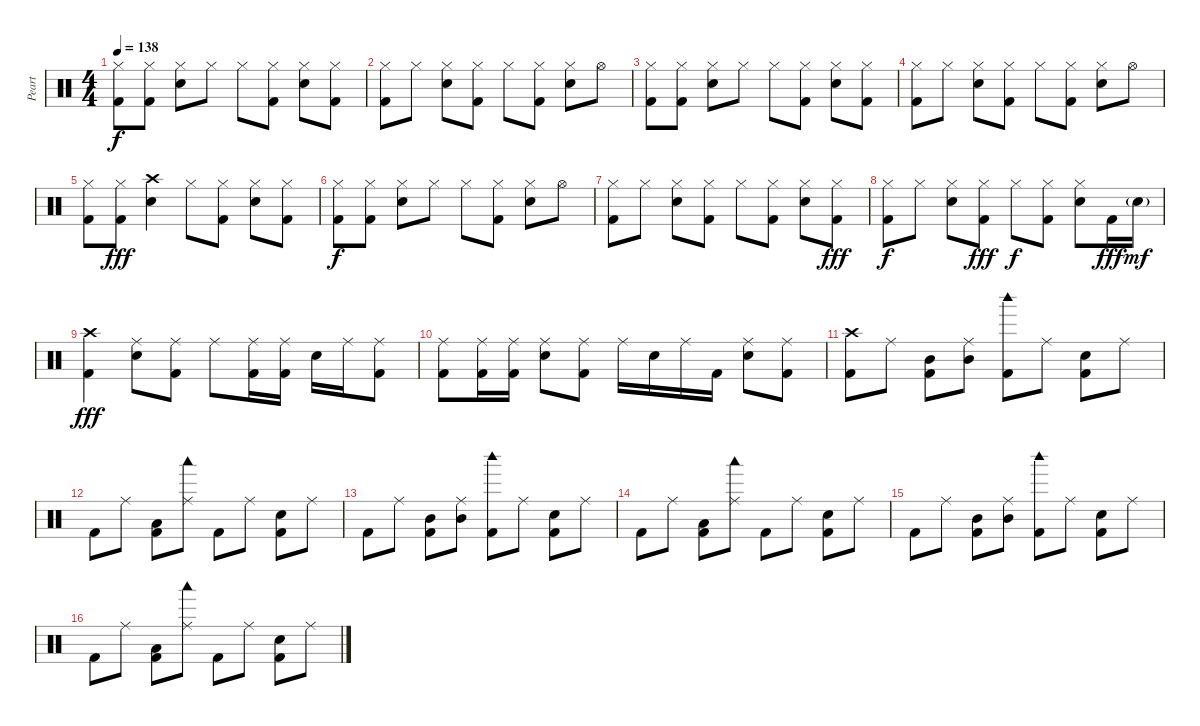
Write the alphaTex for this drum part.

\track ("Peart" "Peart") {instrument percussion}
\staff {score}
\articulation defaults
\ts (4 4)
\tempo 138
\clef neutral
\ks c
("Hi-Hat (closed)" "Kick (hit) 2").8{dy f} ("Hi-Hat (closed)" "Kick (hit) 2").8 ("Hi-Hat (closed)" "Electric Snare (hit)").8 "Hi-Hat (closed)".8 "Hi-Hat (closed)".8 ("Hi-Hat (closed)" "Kick (hit) 2").8 ("Hi-Hat (closed)" "Electric Snare (hit)").8 ("Hi-Hat (closed)" "Kick (hit) 2").8 |
("Hi-Hat (closed)" "Kick (hit) 2").8 "Hi-Hat (closed)".8 ("Hi-Hat (closed)" "Electric Snare (hit)").8 ("Hi-Hat (closed)" "Kick (hit) 2").8 "Hi-Hat (closed)".8 ("Hi-Hat (closed)" "Kick (hit) 2").8 ("Hi-Hat (closed)" "Electric Snare (hit)").8 "Hi-Hat (open)".8 |
("Hi-Hat (closed)" "Kick (hit) 2").8 ("Hi-Hat (closed)" "Kick (hit) 2").8 ("Hi-Hat (closed)" "Electric Snare (hit)").8 "Hi-Hat (closed)".8 "Hi-Hat (closed)".8 ("Hi-Hat (closed)" "Kick (hit) 2").8 ("Hi-Hat (closed)" "Electric Snare (hit)").8 ("Hi-Hat (closed)" "Kick (hit) 2").8 |
("Hi-Hat (closed)" "Kick (hit) 2").8 "Hi-Hat (closed)".8 ("Hi-Hat (closed)" "Electric Snare (hit)").8 ("Hi-Hat (closed)" "Kick (hit) 2").8 "Hi-Hat (closed)".8 ("Hi-Hat (closed)" "Kick (hit) 2").8 ("Hi-Hat (closed)" "Electric Snare (hit)").8 "Hi-Hat (open)".8 |
("Hi-Hat (closed)" "Kick (hit) 2").8 ("Hi-Hat (closed)" "Kick (hit) 2").8{dy fff} ("Crash high (hit)" "Electric Snare (hit)").4 "Hi-Hat (closed)".8 ("Hi-Hat (closed)" "Kick (hit) 2").8 ("Hi-Hat (closed)" "Electric Snare (hit)").8 ("Hi-Hat (closed)" "Kick (hit) 2").8 |
("Hi-Hat (closed)" "Kick (hit) 2").8{dy f} ("Hi-Hat (closed)" "Kick (hit) 2").8 ("Hi-Hat (closed)" "Electric Snare (hit)").8 "Hi-Hat (closed)".8 "Hi-Hat (closed)".8 ("Hi-Hat (closed)" "Kick (hit) 2").8 ("Hi-Hat (closed)" "Electric Snare (hit)").8 "Hi-Hat (open)".8 |
("Hi-Hat (closed)" "Kick (hit) 2").8 "Hi-Hat (closed)".8 ("Hi-Hat (closed)" "Electric Snare (hit)").8 ("Hi-Hat (closed)" "Kick (hit) 2").8 "Hi-Hat (closed)".8 ("Hi-Hat (closed)" "Kick (hit) 2").8 ("Hi-Hat (closed)" "Electric Snare (hit)").8 ("Hi-Hat (closed)" "Kick (hit) 2").8{dy fff} |
("Hi-Hat (closed)" "Kick (hit) 2").8{dy f} "Hi-Hat (closed)".8 ("Hi-Hat (closed)" "Electric Snare (hit)").8 ("Hi-Hat (closed)" "Kick (hit) 2").8{dy fff} "Hi-Hat (closed)".8{dy f} ("Hi-Hat (closed)" "Kick (hit) 2").8 ("Hi-Hat (closed)" "Electric Snare (hit)").8 "Kick (hit) 2".16{dy fff} "Electric Snare (hit)"{g}.16{dy mf} |
("Crash high (hit)" "Kick (hit) 2").4{dy fff} ("Ride (middle)" "Electric Snare (hit)").8 ("Ride (middle)" "Kick (hit) 2").8 "Ride (middle)".8 ("Ride (middle)" "Kick (hit) 2").16 ("Ride (middle)" "Kick (hit) 2").16 "Electric Snare (hit)".16 "Ride (middle)".16 ("Ride (middle)" "Kick (hit) 2").8 |
("Ride (middle)" "Kick (hit) 2").8 ("Ride (middle)" "Kick (hit) 2").16 ("Ride (middle)" "Kick (hit) 2").16 ("Ride (middle)" "Electric Snare (hit)").8 ("Ride (middle)" "Kick (hit) 2").8 "Ride (middle)".16 "Electric Snare (hit)".16 "Ride (middle)".16 "Kick (hit) 2".16 ("Ride (middle)" "Electric Snare (hit)").8 ("Ride (middle)" "Kick (hit) 2").8 |
("Crash high (hit)" "Kick (hit) 2").8 "Ride (middle)".8 ("Mid Tom (hit)" "Kick (hit) 2").8 ("Ride (middle)" "Mid Tom (hit)").8 ("Woodblock high (hit)" "Kick (hit) 2").8 "Ride (middle)".8 ("Electric Snare (hit)" "Kick (hit) 2").8 "Ride (middle)".8 |
"Kick (hit) 2".8 "Ride (middle)".8 ("Low Tom (hit)" "Kick (hit) 2").8 ("Ride (middle)" "Woodblock low (hit)").8 "Kick (hit) 2".8 "Ride (middle)".8 ("Electric Snare (hit)" "Kick (hit) 2").8 "Ride (middle)".8 |
"Kick (hit) 2".8 "Ride (middle)".8 ("Mid Tom (hit)" "Kick (hit) 2").8 ("Ride (middle)" "Mid Tom (hit)").8 ("Woodblock high (hit)" "Kick (hit) 2").8 "Ride (middle)".8 ("Electric Snare (hit)" "Kick (hit) 2").8 "Ride (middle)".8 |
"Kick (hit) 2".8 "Ride (middle)".8 ("Low Tom (hit)" "Kick (hit) 2").8 ("Ride (middle)" "Woodblock low (hit)").8 "Kick (hit) 2".8 "Ride (middle)".8 ("Electric Snare (hit)" "Kick (hit) 2").8 "Ride (middle)".8 |
"Kick (hit) 2".8 "Ride (middle)".8 ("Mid Tom (hit)" "Kick (hit) 2").8 ("Ride (middle)" "Mid Tom (hit)").8 ("Woodblock high (hit)" "Kick (hit) 2").8 "Ride (middle)".8 ("Electric Snare (hit)" "Kick (hit) 2").8 "Ride (middle)".8 |
"Kick (hit) 2".8 "Ride (middle)".8 ("Low Tom (hit)" "Kick (hit) 2").8 ("Ride (middle)" "Woodblock low (hit)").8 "Kick (hit) 2".8 "Ride (middle)".8 ("Electric Snare (hit)" "Kick (hit) 2").8 "Ride (middle)".8
